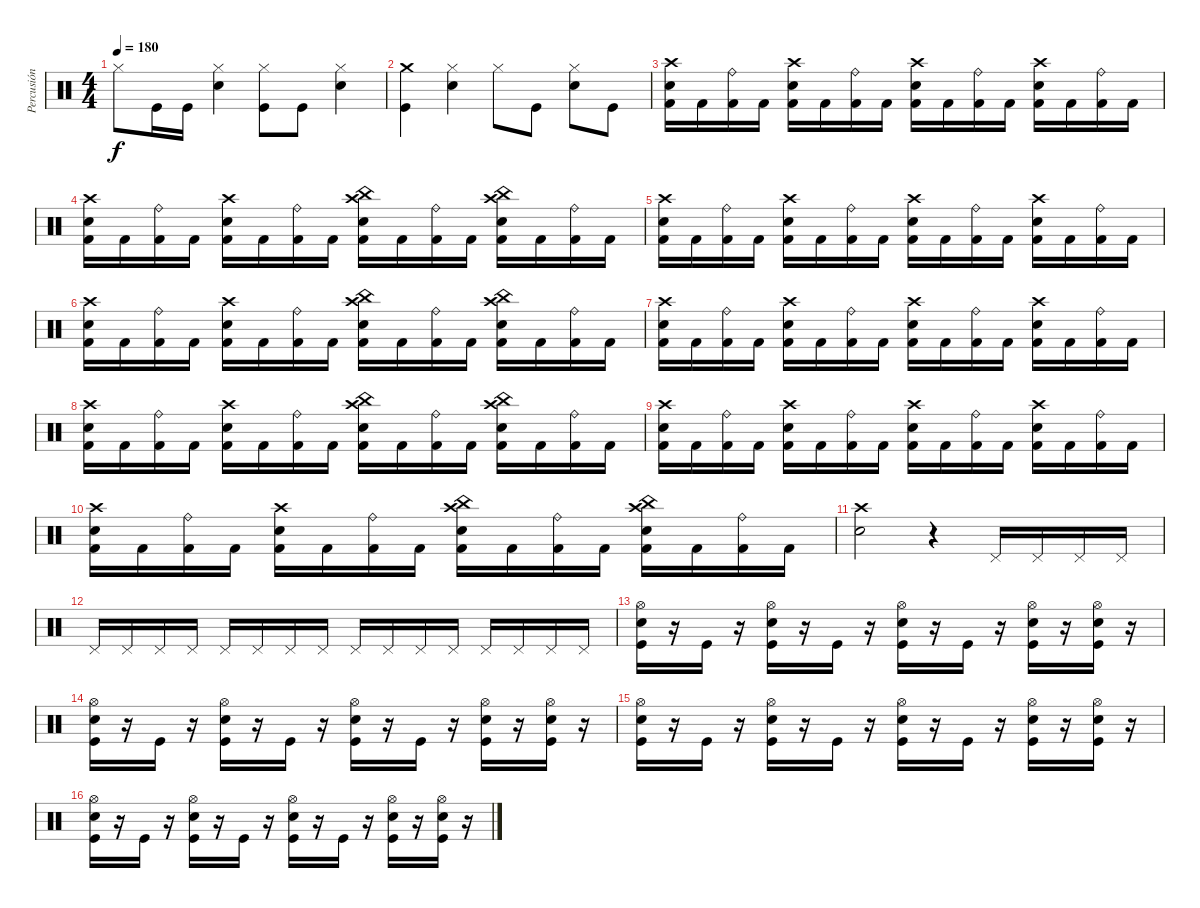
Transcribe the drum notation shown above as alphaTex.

\track ("Percusión" "Percusión") {instrument percussion}
\staff {score}
\articulation defaults
\ts (4 4)
\tempo 180
\clef neutral
\ks c "Hi-Hat (closed)".8{dy f} "Kick (hit)".16 "Kick (hit)".16
("Snare (hit) 2" "Hi-Hat (closed)").4 ("Kick (hit)" "Hi-Hat (closed)").8 "Kick (hit)".8 ("Snare (hit) 2" "Hi-Hat (closed)").4 |
("Kick (hit)" "Crash medium (hit)").4 ("Hi-Hat (closed)" "Snare (hit) 2").4 "Hi-Hat (closed)".8 "Kick (hit)".8 ("Snare (hit) 2" "Hi-Hat (closed)").8 "Kick (hit)".8 |
("Snare (hit) 2" "Crash high (hit)" "Kick (hit) 2").16 "Kick (hit) 2".16 ("Ride (bell)" "Kick (hit) 2").16 "Kick (hit) 2".16 ("Snare (hit) 2" "Crash high (hit)" "Kick (hit) 2").16 "Kick (hit) 2".16 ("Ride (bell)" "Kick (hit) 2").16 "Kick (hit) 2".16 ("Snare (hit) 2" "Crash high (hit)" "Kick (hit) 2").16 "Kick (hit) 2".16 ("Ride (bell)" "Kick (hit) 2").16 "Kick (hit) 2".16 ("Snare (hit) 2" "Crash high (hit)" "Kick (hit) 2").16 "Kick (hit) 2".16 ("Ride (bell)" "Kick (hit) 2").16 "Kick (hit) 2".16 |
("Snare (hit) 2" "Crash high (hit)" "Kick (hit) 2").16 "Kick (hit) 2".16 ("Ride (bell)" "Kick (hit) 2").16 "Kick (hit) 2".16 ("Snare (hit) 2" "Crash high (hit)" "Kick (hit) 2").16 "Kick (hit) 2".16 ("Ride (bell)" "Kick (hit) 2").16 "Kick (hit) 2".16 ("Snare (hit) 2" "China (hit)" "Crash high (hit)" "Kick (hit) 2").16 "Kick (hit) 2".16 ("Ride (bell)" "Kick (hit) 2").16 "Kick (hit) 2".16 ("Snare (hit) 2" "China (hit)" "Crash high (hit)" "Kick (hit) 2").16 "Kick (hit) 2".16 ("Ride (bell)" "Kick (hit) 2").16 "Kick (hit) 2".16 |
("Snare (hit) 2" "Crash high (hit)" "Kick (hit) 2").16 "Kick (hit) 2".16 ("Ride (bell)" "Kick (hit) 2").16 "Kick (hit) 2".16 ("Snare (hit) 2" "Crash high (hit)" "Kick (hit) 2").16 "Kick (hit) 2".16 ("Ride (bell)" "Kick (hit) 2").16 "Kick (hit) 2".16 ("Snare (hit) 2" "Crash high (hit)" "Kick (hit) 2").16 "Kick (hit) 2".16 ("Ride (bell)" "Kick (hit) 2").16 "Kick (hit) 2".16 ("Snare (hit) 2" "Crash high (hit)" "Kick (hit) 2").16 "Kick (hit) 2".16 ("Ride (bell)" "Kick (hit) 2").16 "Kick (hit) 2".16 |
("Snare (hit) 2" "Crash high (hit)" "Kick (hit) 2").16 "Kick (hit) 2".16 ("Ride (bell)" "Kick (hit) 2").16 "Kick (hit) 2".16 ("Snare (hit) 2" "Crash high (hit)" "Kick (hit) 2").16 "Kick (hit) 2".16 ("Ride (bell)" "Kick (hit) 2").16 "Kick (hit) 2".16 ("Snare (hit) 2" "China (hit)" "Crash high (hit)" "Kick (hit) 2").16 "Kick (hit) 2".16 ("Ride (bell)" "Kick (hit) 2").16 "Kick (hit) 2".16 ("Snare (hit) 2" "China (hit)" "Crash high (hit)" "Kick (hit) 2").16 "Kick (hit) 2".16 ("Ride (bell)" "Kick (hit) 2").16 "Kick (hit) 2".16 |
("Snare (hit) 2" "Crash high (hit)" "Kick (hit) 2").16 "Kick (hit) 2".16 ("Ride (bell)" "Kick (hit) 2").16 "Kick (hit) 2".16 ("Snare (hit) 2" "Crash high (hit)" "Kick (hit) 2").16 "Kick (hit) 2".16 ("Ride (bell)" "Kick (hit) 2").16 "Kick (hit) 2".16 ("Snare (hit) 2" "Crash high (hit)" "Kick (hit) 2").16 "Kick (hit) 2".16 ("Ride (bell)" "Kick (hit) 2").16 "Kick (hit) 2".16 ("Snare (hit) 2" "Crash high (hit)" "Kick (hit) 2").16 "Kick (hit) 2".16 ("Ride (bell)" "Kick (hit) 2").16 "Kick (hit) 2".16 |
("Snare (hit) 2" "Crash high (hit)" "Kick (hit) 2").16 "Kick (hit) 2".16 ("Ride (bell)" "Kick (hit) 2").16 "Kick (hit) 2".16 ("Snare (hit) 2" "Crash high (hit)" "Kick (hit) 2").16 "Kick (hit) 2".16 ("Ride (bell)" "Kick (hit) 2").16 "Kick (hit) 2".16 ("Snare (hit) 2" "China (hit)" "Crash high (hit)" "Kick (hit) 2").16 "Kick (hit) 2".16 ("Ride (bell)" "Kick (hit) 2").16 "Kick (hit) 2".16 ("Snare (hit) 2" "China (hit)" "Crash high (hit)" "Kick (hit) 2").16 "Kick (hit) 2".16 ("Ride (bell)" "Kick (hit) 2").16 "Kick (hit) 2".16 |
("Snare (hit) 2" "Crash high (hit)" "Kick (hit) 2").16 "Kick (hit) 2".16 ("Ride (bell)" "Kick (hit) 2").16 "Kick (hit) 2".16 ("Snare (hit) 2" "Crash high (hit)" "Kick (hit) 2").16 "Kick (hit) 2".16 ("Ride (bell)" "Kick (hit) 2").16 "Kick (hit) 2".16 ("Snare (hit) 2" "Crash high (hit)" "Kick (hit) 2").16 "Kick (hit) 2".16 ("Ride (bell)" "Kick (hit) 2").16 "Kick (hit) 2".16 ("Snare (hit) 2" "Crash high (hit)" "Kick (hit) 2").16 "Kick (hit) 2".16 ("Ride (bell)" "Kick (hit) 2").16 "Kick (hit) 2".16 |
("Snare (hit) 2" "Crash high (hit)" "Kick (hit) 2").16 "Kick (hit) 2".16 ("Ride (bell)" "Kick (hit) 2").16 "Kick (hit) 2".16 ("Snare (hit) 2" "Crash high (hit)" "Kick (hit) 2").16 "Kick (hit) 2".16 ("Ride (bell)" "Kick (hit) 2").16 "Kick (hit) 2".16 ("Snare (hit) 2" "China (hit)" "Crash high (hit)" "Kick (hit) 2").16 "Kick (hit) 2".16 ("Ride (bell)" "Kick (hit) 2").16 "Kick (hit) 2".16 ("Snare (hit) 2" "China (hit)" "Crash high (hit)" "Kick (hit) 2").16 "Kick (hit) 2".16 ("Ride (bell)" "Kick (hit) 2").16 "Kick (hit) 2".16 |
("Crash high (hit)" "Snare (hit) 2").2 r.4 "Pedal Hi-Hat (hit)".16 "Pedal Hi-Hat (hit)".16 "Pedal Hi-Hat (hit)".16 "Pedal Hi-Hat (hit)".16 |
"Pedal Hi-Hat (hit)".16 "Pedal Hi-Hat (hit)".16 "Pedal Hi-Hat (hit)".16 "Pedal Hi-Hat (hit)".16 "Pedal Hi-Hat (hit)".16 "Pedal Hi-Hat (hit)".16 "Pedal Hi-Hat (hit)".16 "Pedal Hi-Hat (hit)".16 "Pedal Hi-Hat (hit)".16 "Pedal Hi-Hat (hit)".16 "Pedal Hi-Hat (hit)".16 "Pedal Hi-Hat (hit)".16 "Pedal Hi-Hat (hit)".16 "Pedal Hi-Hat (hit)".16 "Pedal Hi-Hat (hit)".16 "Pedal Hi-Hat (hit)".16 |
("Snare (hit) 2" "Hi-Hat (open)" "Kick (hit)").16 r.16 "Kick (hit)".16 r.16 ("Snare (hit) 2" "Hi-Hat (open)" "Kick (hit)").16 r.16 "Kick (hit)".16 r.16 ("Snare (hit) 2" "Hi-Hat (open)" "Kick (hit)").16 r.16 "Kick (hit)".16 r.16 ("Snare (hit) 2" "Hi-Hat (open)" "Kick (hit)").16 r.16 ("Snare (hit) 2" "Hi-Hat (open)" "Kick (hit)").16 r.16 |
("Snare (hit) 2" "Hi-Hat (open)" "Kick (hit)").16 r.16 "Kick (hit)".16 r.16 ("Snare (hit) 2" "Hi-Hat (open)" "Kick (hit)").16 r.16 "Kick (hit)".16 r.16 ("Snare (hit) 2" "Hi-Hat (open)" "Kick (hit)").16 r.16 "Kick (hit)".16 r.16 ("Snare (hit) 2" "Hi-Hat (open)" "Kick (hit)").16 r.16 ("Snare (hit) 2" "Hi-Hat (open)" "Kick (hit)").16 r.16 |
("Snare (hit) 2" "Hi-Hat (open)" "Kick (hit)").16 r.16 "Kick (hit)".16 r.16 ("Snare (hit) 2" "Hi-Hat (open)" "Kick (hit)").16 r.16 "Kick (hit)".16 r.16 ("Snare (hit) 2" "Hi-Hat (open)" "Kick (hit)").16 r.16 "Kick (hit)".16 r.16 ("Snare (hit) 2" "Hi-Hat (open)" "Kick (hit)").16 r.16 ("Snare (hit) 2" "Hi-Hat (open)" "Kick (hit)").16 r.16 |
("Snare (hit) 2" "Hi-Hat (open)" "Kick (hit)").16 r.16 "Kick (hit)".16 r.16 ("Snare (hit) 2" "Hi-Hat (open)" "Kick (hit)").16 r.16 "Kick (hit)".16 r.16 ("Snare (hit) 2" "Hi-Hat (open)" "Kick (hit)").16 r.16 "Kick (hit)".16 r.16 ("Snare (hit) 2" "Hi-Hat (open)" "Kick (hit)").16 r.16 ("Snare (hit) 2" "Hi-Hat (open)" "Kick (hit)").16 r.16
